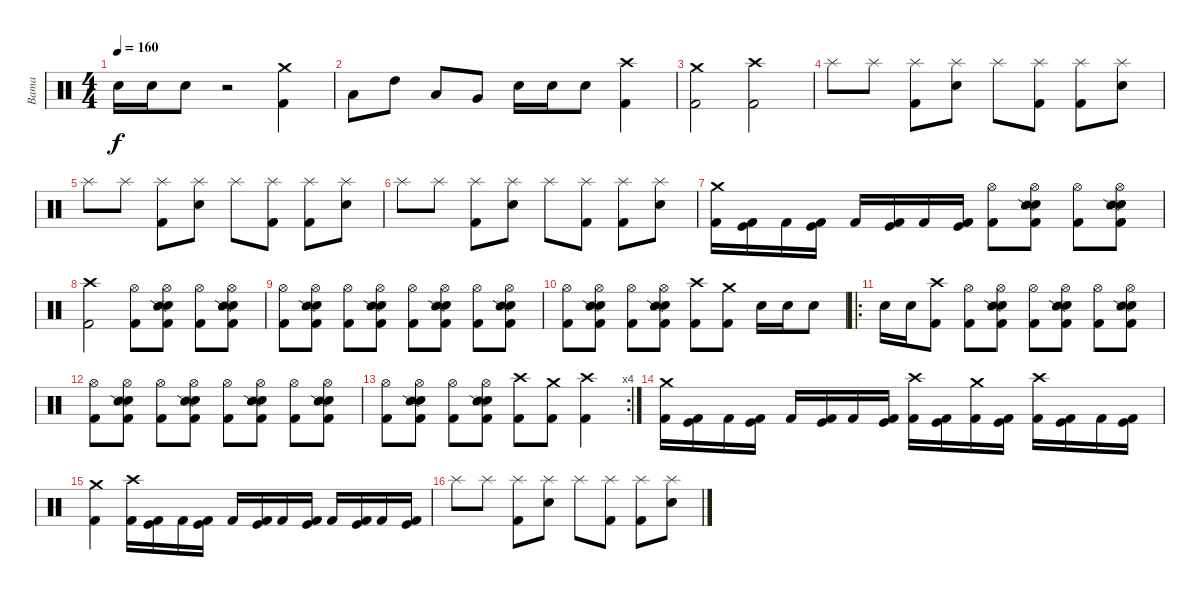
\track ("Bama" "Bama") {instrument percussion}
\staff {score}
\articulation defaults
\ts (4 4)
\tempo 160
\clef neutral
\ks c "Electric Snare (hit)".16{dy f} "Electric Snare (hit)".16 "Electric Snare (hit)".8
r.2 ("Crash medium (hit)" "Kick (hit) 2").4 |
"Low Tom (hit)".8 "High Tom (hit)".8 "Low Tom (hit)".8 "Very Low Tom (hit)".8 "Electric Snare (hit)".16 "Electric Snare (hit)".16 "Electric Snare (hit)".8 ("Crash high (hit)" "Kick (hit) 2").4 |
("Crash medium (hit)" "Kick (hit) 2").2 ("Crash high (hit)" "Kick (hit) 2").2 |
"Splash (hit)".8 "Splash (hit)".8 ("Splash (hit)" "Kick (hit) 2").8 ("Splash (hit)" "Electric Snare (hit)").8 "Splash (hit)".8 ("Splash (hit)" "Kick (hit) 2").8 ("Splash (hit)" "Kick (hit) 2").8 ("Splash (hit)" "Electric Snare (hit)").8 |
"Splash (hit)".8 "Splash (hit)".8 ("Splash (hit)" "Kick (hit) 2").8 ("Splash (hit)" "Electric Snare (hit)").8 "Splash (hit)".8 ("Splash (hit)" "Kick (hit) 2").8 ("Splash (hit)" "Kick (hit) 2").8 ("Splash (hit)" "Electric Snare (hit)").8 |
"Splash (hit)".8 "Splash (hit)".8 ("Splash (hit)" "Kick (hit) 2").8 ("Splash (hit)" "Electric Snare (hit)").8 "Splash (hit)".8 ("Splash (hit)" "Kick (hit) 2").8 ("Splash (hit)" "Kick (hit) 2").8 ("Splash (hit)" "Electric Snare (hit)").8 |
("Crash medium (hit)" "Kick (hit) 2").16 ("Kick (hit)" "Kick (hit) 2").16 "Kick (hit) 2".16 ("Kick (hit)" "Kick (hit) 2").16 "Kick (hit) 2".16 ("Kick (hit)" "Kick (hit) 2").16 "Kick (hit) 2".16 ("Kick (hit)" "Kick (hit) 2").16 ("Hi-Hat (open)" "Kick (hit) 2").8 ("Hi-Hat (open)" "Electric Snare (hit)" "Snare (side stick) 2" "Kick (hit) 2").8 ("Hi-Hat (open)" "Kick (hit) 2").8 ("Hi-Hat (open)" "Electric Snare (hit)" "Snare (side stick) 2" "Kick (hit) 2").8 |
("Crash high (hit)" "Kick (hit) 2").2 ("Hi-Hat (open)" "Kick (hit) 2").8 ("Hi-Hat (open)" "Electric Snare (hit)" "Snare (side stick) 2" "Kick (hit) 2").8 ("Hi-Hat (open)" "Kick (hit) 2").8 ("Hi-Hat (open)" "Electric Snare (hit)" "Snare (side stick) 2" "Kick (hit) 2").8 |
("Hi-Hat (open)" "Kick (hit) 2").8 ("Hi-Hat (open)" "Electric Snare (hit)" "Snare (side stick) 2" "Kick (hit) 2").8 ("Hi-Hat (open)" "Kick (hit) 2").8 ("Hi-Hat (open)" "Electric Snare (hit)" "Snare (side stick) 2" "Kick (hit) 2").8 ("Hi-Hat (open)" "Kick (hit) 2").8 ("Hi-Hat (open)" "Electric Snare (hit)" "Snare (side stick) 2" "Kick (hit) 2").8 ("Hi-Hat (open)" "Kick (hit) 2").8 ("Hi-Hat (open)" "Electric Snare (hit)" "Snare (side stick) 2" "Kick (hit) 2").8 |
("Hi-Hat (open)" "Kick (hit) 2").8 ("Hi-Hat (open)" "Electric Snare (hit)" "Snare (side stick) 2" "Kick (hit) 2").8 ("Hi-Hat (open)" "Kick (hit) 2").8 ("Hi-Hat (open)" "Electric Snare (hit)" "Snare (side stick) 2" "Kick (hit) 2").8 ("Crash high (hit)" "Kick (hit) 2").8 ("Crash medium (hit)" "Kick (hit) 2").8 "Electric Snare (hit)".16 "Electric Snare (hit)".16 "Electric Snare (hit)".8 |
\ro "Electric Snare (hit)".16 "Electric Snare (hit)".16
("Crash high (hit)" "Kick (hit) 2").8 ("Hi-Hat (open)" "Kick (hit) 2").8 ("Hi-Hat (open)" "Electric Snare (hit)" "Snare (side stick) 2" "Kick (hit) 2").8 ("Hi-Hat (open)" "Kick (hit) 2").8 ("Hi-Hat (open)" "Electric Snare (hit)" "Snare (side stick) 2" "Kick (hit) 2").8 ("Hi-Hat (open)" "Kick (hit) 2").8 ("Hi-Hat (open)" "Electric Snare (hit)" "Snare (side stick) 2" "Kick (hit) 2").8 |
("Hi-Hat (open)" "Kick (hit) 2").8 ("Hi-Hat (open)" "Electric Snare (hit)" "Snare (side stick) 2" "Kick (hit) 2").8 ("Hi-Hat (open)" "Kick (hit) 2").8 ("Hi-Hat (open)" "Electric Snare (hit)" "Snare (side stick) 2" "Kick (hit) 2").8 ("Hi-Hat (open)" "Kick (hit) 2").8 ("Hi-Hat (open)" "Electric Snare (hit)" "Snare (side stick) 2" "Kick (hit) 2").8 ("Hi-Hat (open)" "Kick (hit) 2").8 ("Hi-Hat (open)" "Electric Snare (hit)" "Snare (side stick) 2" "Kick (hit) 2").8 |
\rc 4
("Hi-Hat (open)" "Kick (hit) 2").8 ("Hi-Hat (open)" "Electric Snare (hit)" "Snare (side stick) 2" "Kick (hit) 2").8 ("Hi-Hat (open)" "Kick (hit) 2").8 ("Hi-Hat (open)" "Electric Snare (hit)" "Snare (side stick) 2" "Kick (hit) 2").8 ("Crash high (hit)" "Kick (hit) 2").8 ("Crash medium (hit)" "Kick (hit) 2").8 ("Crash high (hit)" "Kick (hit) 2").4 |
("Crash medium (hit)" "Kick (hit) 2").16 ("Kick (hit)" "Kick (hit) 2").16 "Kick (hit) 2".16 ("Kick (hit)" "Kick (hit) 2").16 "Kick (hit) 2".16 ("Kick (hit)" "Kick (hit) 2").16 "Kick (hit) 2".16 ("Kick (hit)" "Kick (hit) 2").16 ("Crash high (hit)" "Kick (hit) 2").16 ("Kick (hit)" "Kick (hit) 2").16 ("Crash medium (hit)" "Kick (hit) 2").16 ("Kick (hit)" "Kick (hit) 2").16 ("Crash high (hit)" "Kick (hit) 2").16 ("Kick (hit)" "Kick (hit) 2").16 "Kick (hit) 2".16 ("Kick (hit)" "Kick (hit) 2").16 |
("Crash medium (hit)" "Kick (hit) 2").4 ("Crash high (hit)" "Kick (hit) 2").16 ("Kick (hit)" "Kick (hit) 2").16 "Kick (hit) 2".16 ("Kick (hit)" "Kick (hit) 2").16 "Kick (hit) 2".16 ("Kick (hit)" "Kick (hit) 2").16 "Kick (hit) 2".16 ("Kick (hit)" "Kick (hit) 2").16 "Kick (hit) 2".16 ("Kick (hit)" "Kick (hit) 2").16 "Kick (hit) 2".16 ("Kick (hit)" "Kick (hit) 2").16 |
"Splash (hit)".8 "Splash (hit)".8 ("Splash (hit)" "Kick (hit) 2").8 ("Splash (hit)" "Electric Snare (hit)").8 "Splash (hit)".8 ("Splash (hit)" "Kick (hit) 2").8 ("Splash (hit)" "Kick (hit) 2").8 ("Splash (hit)" "Electric Snare (hit)").8
